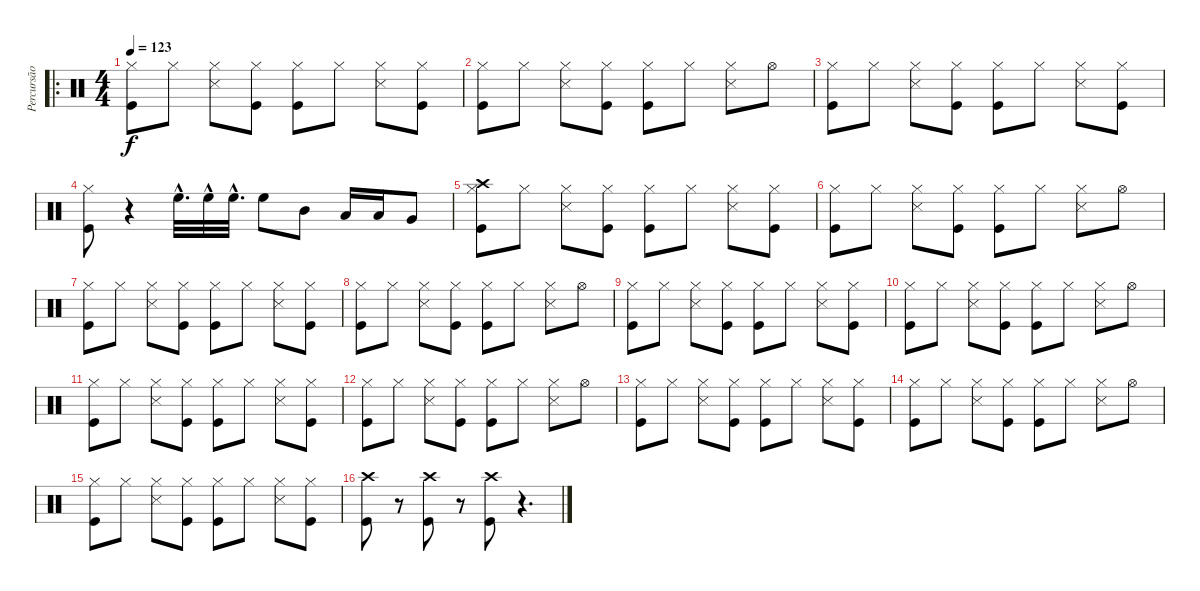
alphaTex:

\track ("Percursão" "Percursão") {instrument percussion}
\staff {score}
\articulation defaults
\ro
\ts (4 4)
\tempo 123
\clef neutral
\ks c
("Kick (hit)" "Hi-Hat (closed)").8{dy f} "Hi-Hat (closed)".8 ("Hi-Hat (closed)" "Snare (side stick) 3").8 ("Kick (hit)" "Hi-Hat (closed)").8 ("Kick (hit)" "Hi-Hat (closed)").8 "Hi-Hat (closed)".8 ("Snare (side stick) 3" "Hi-Hat (closed)").8 ("Hi-Hat (closed)" "Kick (hit)").8 |
("Kick (hit)" "Hi-Hat (closed)").8 "Hi-Hat (closed)".8 ("Snare (side stick) 3" "Hi-Hat (closed)").8 ("Hi-Hat (closed)" "Kick (hit)").8 ("Hi-Hat (closed)" "Kick (hit)").8 "Hi-Hat (closed)".8 ("Snare (side stick) 3" "Hi-Hat (closed)").8 "Hi-Hat (open)".8 |
("Hi-Hat (closed)" "Kick (hit)").8 "Hi-Hat (closed)".8 ("Hi-Hat (closed)" "Snare (side stick) 3").8 ("Kick (hit)" "Hi-Hat (closed)").8 ("Kick (hit)" "Hi-Hat (closed)").8 "Hi-Hat (closed)".8 ("Snare (side stick) 3" "Hi-Hat (closed)").8 ("Hi-Hat (closed)" "Kick (hit)").8 |
("Hi-Hat (closed)" "Kick (hit)").8 r.4 "High Floor Tom (hit)"{hac}.32{d} "High Floor Tom (hit)"{hac}.32 "High Floor Tom (hit)"{hac}.32{d} "High Floor Tom (hit)".8 "Mid Tom (hit)".8 "Low Tom (hit)".16 "Low Tom (hit)".16 "Very Low Tom (hit)".8 |
("Kick (hit)" "Hi-Hat (closed)" "Crash high (hit)").8 "Hi-Hat (closed)".8 ("Hi-Hat (closed)" "Snare (side stick) 3").8 ("Hi-Hat (closed)" "Kick (hit)").8 ("Hi-Hat (closed)" "Kick (hit)").8 "Hi-Hat (closed)".8 ("Snare (side stick) 3" "Hi-Hat (closed)").8 ("Kick (hit)" "Hi-Hat (closed)").8 |
("Kick (hit)" "Hi-Hat (closed)").8 "Hi-Hat (closed)".8 ("Snare (side stick) 3" "Hi-Hat (closed)").8 ("Hi-Hat (closed)" "Kick (hit)").8 ("Kick (hit)" "Hi-Hat (closed)").8 "Hi-Hat (closed)".8 ("Snare (side stick) 3" "Hi-Hat (closed)").8 "Hi-Hat (open)".8 |
("Hi-Hat (closed)" "Kick (hit)").8 "Hi-Hat (closed)".8 ("Hi-Hat (closed)" "Snare (side stick) 3").8 ("Kick (hit)" "Hi-Hat (closed)").8 ("Kick (hit)" "Hi-Hat (closed)").8 "Hi-Hat (closed)".8 ("Hi-Hat (closed)" "Snare (side stick) 3").8 ("Kick (hit)" "Hi-Hat (closed)").8 |
("Hi-Hat (closed)" "Kick (hit)").8 "Hi-Hat (closed)".8 ("Snare (side stick) 3" "Hi-Hat (closed)").8 ("Hi-Hat (closed)" "Kick (hit)").8 ("Hi-Hat (closed)" "Kick (hit)").8 "Hi-Hat (closed)".8 ("Hi-Hat (closed)" "Snare (side stick) 3").8 "Hi-Hat (open)".8 |
("Kick (hit)" "Hi-Hat (closed)").8 "Hi-Hat (closed)".8 ("Hi-Hat (closed)" "Snare (side stick) 3").8 ("Hi-Hat (closed)" "Kick (hit)").8 ("Kick (hit)" "Hi-Hat (closed)").8 "Hi-Hat (closed)".8 ("Hi-Hat (closed)" "Snare (side stick) 3").8 ("Hi-Hat (closed)" "Kick (hit)").8 |
("Hi-Hat (closed)" "Kick (hit)").8 "Hi-Hat (closed)".8 ("Hi-Hat (closed)" "Snare (side stick) 3").8 ("Kick (hit)" "Hi-Hat (closed)").8 ("Hi-Hat (closed)" "Kick (hit)").8 "Hi-Hat (closed)".8 ("Snare (side stick) 3" "Hi-Hat (closed)").8 "Hi-Hat (open)".8 |
("Kick (hit)" "Hi-Hat (closed)").8 "Hi-Hat (closed)".8 ("Hi-Hat (closed)" "Snare (side stick) 3").8 ("Kick (hit)" "Hi-Hat (closed)").8 ("Kick (hit)" "Hi-Hat (closed)").8 "Hi-Hat (closed)".8 ("Hi-Hat (closed)" "Snare (side stick) 3").8 ("Hi-Hat (closed)" "Kick (hit)").8 |
("Hi-Hat (closed)" "Kick (hit)").8 "Hi-Hat (closed)".8 ("Hi-Hat (closed)" "Snare (side stick) 3").8 ("Hi-Hat (closed)" "Kick (hit)").8 ("Kick (hit)" "Hi-Hat (closed)").8 "Hi-Hat (closed)".8 ("Hi-Hat (closed)" "Snare (side stick) 3").8 "Hi-Hat (open)".8 |
("Kick (hit)" "Hi-Hat (closed)").8 "Hi-Hat (closed)".8 ("Snare (side stick) 3" "Hi-Hat (closed)").8 ("Hi-Hat (closed)" "Kick (hit)").8 ("Hi-Hat (closed)" "Kick (hit)").8 "Hi-Hat (closed)".8 ("Snare (side stick) 3" "Hi-Hat (closed)").8 ("Hi-Hat (closed)" "Kick (hit)").8 |
("Hi-Hat (closed)" "Kick (hit)").8 "Hi-Hat (closed)".8 ("Snare (side stick) 3" "Hi-Hat (closed)").8 ("Kick (hit)" "Hi-Hat (closed)").8 ("Kick (hit)" "Hi-Hat (closed)").8 "Hi-Hat (closed)".8 ("Snare (side stick) 3" "Hi-Hat (closed)").8 "Hi-Hat (open)".8 |
("Kick (hit)" "Hi-Hat (closed)").8 "Hi-Hat (closed)".8 ("Hi-Hat (closed)" "Snare (side stick) 3").8 ("Hi-Hat (closed)" "Kick (hit)").8 ("Hi-Hat (closed)" "Kick (hit)").8 "Hi-Hat (closed)".8 ("Hi-Hat (closed)" "Snare (side stick) 3").8 ("Kick (hit)" "Hi-Hat (closed)").8 |
("Kick (hit)" "Crash high (hit)").8 r.8 ("Kick (hit)" "Crash high (hit)").8 r.8 ("Crash high (hit)" "Kick (hit)").8 r.4{d}
